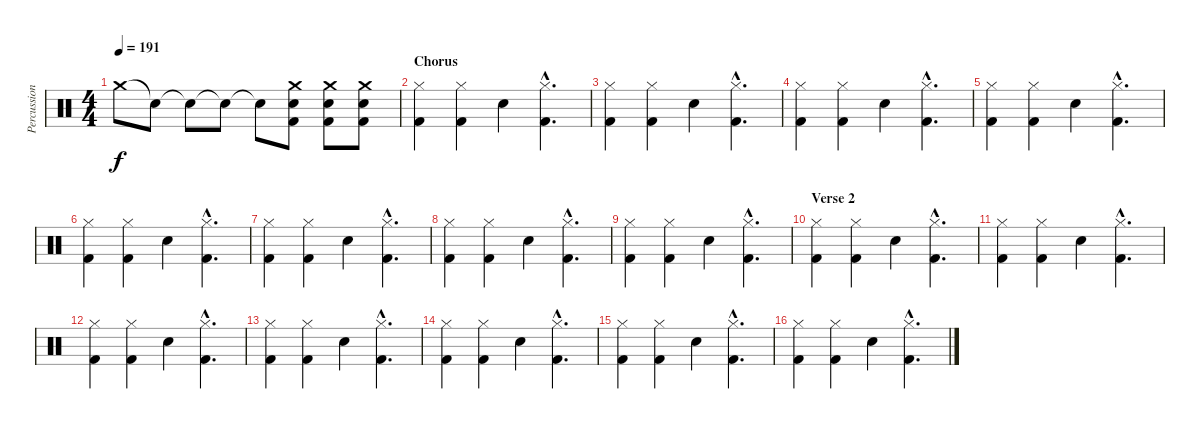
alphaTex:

\track ("Percussion" "Percussion") {instrument percussion}
\staff {score}
\articulation defaults
\ts (4 4)
\tempo 191
\clef neutral
\ks c "Crash medium (hit)".8{dy f} "Snare (hit)"{t}.8 "Snare (hit)"{t}.8 "Snare (hit)"{t}.8 "Electric Snare (hit)"{t}.8
("Crash medium (hit)" "Electric Snare (hit)" "Kick (hit) 2").8 ("Crash medium (hit)" "Electric Snare (hit)" "Kick (hit) 2").8 ("Crash medium (hit)" "Electric Snare (hit)" "Kick (hit) 2").8 |
\section ("" "Chorus")
("Hi-Hat (closed)" "Kick (hit) 2").4 ("Hi-Hat (closed)" "Kick (hit) 2").4 "Electric Snare (hit)".4 ("Hi-Hat (closed)"{hac} "Kick (hit) 2"{hac}).4{d} |
("Hi-Hat (closed)" "Kick (hit) 2").4 ("Hi-Hat (closed)" "Kick (hit) 2").4 "Electric Snare (hit)".4 ("Hi-Hat (closed)"{hac} "Kick (hit) 2"{hac}).4{d} |
("Hi-Hat (closed)" "Kick (hit) 2").4 ("Hi-Hat (closed)" "Kick (hit) 2").4 "Electric Snare (hit)".4 ("Hi-Hat (closed)"{hac} "Kick (hit) 2"{hac}).4{d} |
("Hi-Hat (closed)" "Kick (hit) 2").4 ("Hi-Hat (closed)" "Kick (hit) 2").4 "Electric Snare (hit)".4 ("Hi-Hat (closed)"{hac} "Kick (hit) 2"{hac}).4{d} |
("Hi-Hat (closed)" "Kick (hit) 2").4 ("Hi-Hat (closed)" "Kick (hit) 2").4 "Electric Snare (hit)".4 ("Hi-Hat (closed)"{hac} "Kick (hit) 2"{hac}).4{d} |
("Hi-Hat (closed)" "Kick (hit) 2").4 ("Hi-Hat (closed)" "Kick (hit) 2").4 "Electric Snare (hit)".4 ("Hi-Hat (closed)"{hac} "Kick (hit) 2"{hac}).4{d} |
("Hi-Hat (closed)" "Kick (hit) 2").4 ("Hi-Hat (closed)" "Kick (hit) 2").4 "Electric Snare (hit)".4 ("Hi-Hat (closed)"{hac} "Kick (hit) 2"{hac}).4{d} |
("Hi-Hat (closed)" "Kick (hit) 2").4 ("Hi-Hat (closed)" "Kick (hit) 2").4 "Electric Snare (hit)".4 ("Hi-Hat (closed)"{hac} "Kick (hit) 2"{hac}).4{d} |
\section ("" "Verse 2")
("Hi-Hat (closed)" "Kick (hit) 2").4 ("Hi-Hat (closed)" "Kick (hit) 2").4 "Electric Snare (hit)".4 ("Hi-Hat (closed)"{hac} "Kick (hit) 2"{hac}).4{d} |
("Hi-Hat (closed)" "Kick (hit) 2").4 ("Hi-Hat (closed)" "Kick (hit) 2").4 "Electric Snare (hit)".4 ("Hi-Hat (closed)"{hac} "Kick (hit) 2"{hac}).4{d} |
("Hi-Hat (closed)" "Kick (hit) 2").4 ("Hi-Hat (closed)" "Kick (hit) 2").4 "Electric Snare (hit)".4 ("Hi-Hat (closed)"{hac} "Kick (hit) 2"{hac}).4{d} |
("Hi-Hat (closed)" "Kick (hit) 2").4 ("Hi-Hat (closed)" "Kick (hit) 2").4 "Electric Snare (hit)".4 ("Hi-Hat (closed)"{hac} "Kick (hit) 2"{hac}).4{d} |
("Hi-Hat (closed)" "Kick (hit) 2").4 ("Hi-Hat (closed)" "Kick (hit) 2").4 "Electric Snare (hit)".4 ("Hi-Hat (closed)"{hac} "Kick (hit) 2"{hac}).4{d} |
("Hi-Hat (closed)" "Kick (hit) 2").4 ("Hi-Hat (closed)" "Kick (hit) 2").4 "Electric Snare (hit)".4 ("Hi-Hat (closed)"{hac} "Kick (hit) 2"{hac}).4{d} |
("Hi-Hat (closed)" "Kick (hit) 2").4 ("Hi-Hat (closed)" "Kick (hit) 2").4 "Electric Snare (hit)".4 ("Hi-Hat (closed)"{hac} "Kick (hit) 2"{hac}).4{d}
